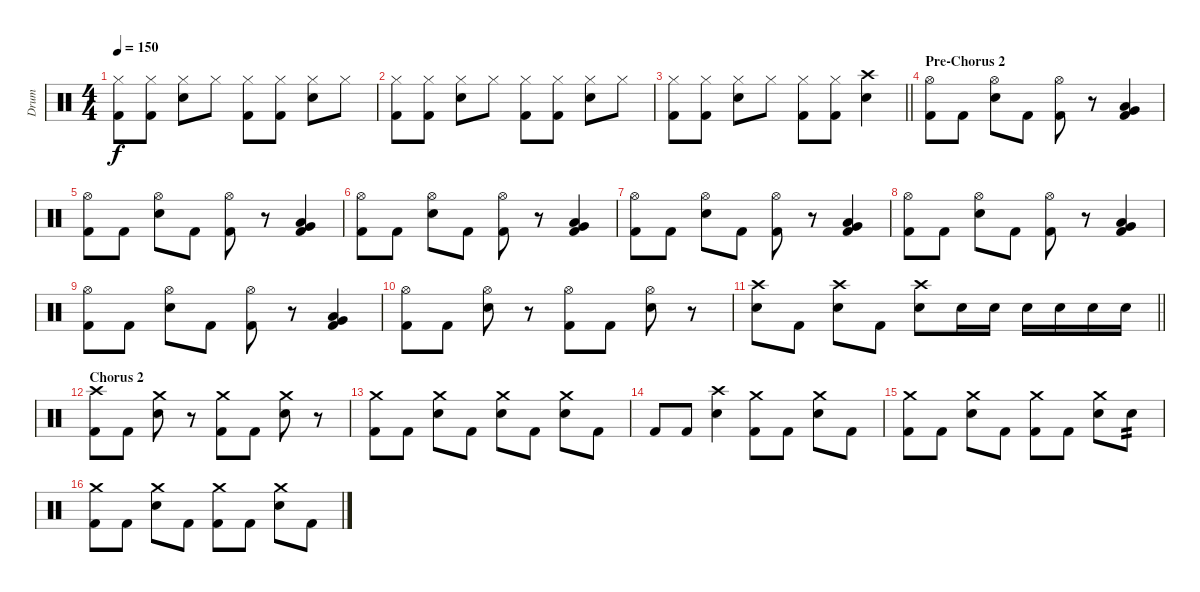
\track ("Drum" "Drum") {instrument percussion}
\staff {score}
\articulation defaults
\ts (4 4)
\tempo 150
\clef neutral
\ks c
("Kick (hit) 2" "Hi-Hat (closed)").8{dy f} ("Kick (hit) 2" "Hi-Hat (closed)").8 ("Electric Snare (hit)" "Hi-Hat (closed)").8 "Hi-Hat (closed)".8 ("Kick (hit) 2" "Hi-Hat (closed)").8 ("Kick (hit) 2" "Hi-Hat (closed)").8 ("Electric Snare (hit)" "Hi-Hat (closed)").8 "Hi-Hat (closed)".8 |
("Kick (hit) 2" "Hi-Hat (closed)").8 ("Kick (hit) 2" "Hi-Hat (closed)").8 ("Electric Snare (hit)" "Hi-Hat (closed)").8 "Hi-Hat (closed)".8 ("Kick (hit) 2" "Hi-Hat (closed)").8 ("Kick (hit) 2" "Hi-Hat (closed)").8 ("Electric Snare (hit)" "Hi-Hat (closed)").8 "Hi-Hat (closed)".8 |
\barLineRight lightlight
("Kick (hit) 2" "Hi-Hat (closed)").8 ("Kick (hit) 2" "Hi-Hat (closed)").8 ("Electric Snare (hit)" "Hi-Hat (closed)").8 "Hi-Hat (closed)".8 ("Kick (hit) 2" "Hi-Hat (closed)").8 ("Kick (hit) 2" "Hi-Hat (closed)").8 ("Electric Snare (hit)" "Crash high (hit)").4 |
\section ("" "Pre-Chorus 2")
("Kick (hit) 2" "Hi-Hat (open)").8 "Kick (hit) 2".8 ("Electric Snare (hit)" "Hi-Hat (open)").8 "Kick (hit) 2".8 ("Kick (hit) 2" "Hi-Hat (open)").8 r.8 ("Very Low Tom (hit)" "Kick (hit) 2" "Low Tom (hit)").4 |
("Kick (hit) 2" "Hi-Hat (open)").8 "Kick (hit) 2".8 ("Electric Snare (hit)" "Hi-Hat (open)").8 "Kick (hit) 2".8 ("Kick (hit) 2" "Hi-Hat (open)").8 r.8 ("Very Low Tom (hit)" "Kick (hit) 2" "Low Tom (hit)").4 |
("Kick (hit) 2" "Hi-Hat (open)").8 "Kick (hit) 2".8 ("Electric Snare (hit)" "Hi-Hat (open)").8 "Kick (hit) 2".8 ("Kick (hit) 2" "Hi-Hat (open)").8 r.8 ("Very Low Tom (hit)" "Kick (hit) 2" "Low Tom (hit)").4 |
("Kick (hit) 2" "Hi-Hat (open)").8 "Kick (hit) 2".8 ("Electric Snare (hit)" "Hi-Hat (open)").8 "Kick (hit) 2".8 ("Kick (hit) 2" "Hi-Hat (open)").8 r.8 ("Very Low Tom (hit)" "Kick (hit) 2" "Low Tom (hit)").4 |
("Kick (hit) 2" "Hi-Hat (open)").8 "Kick (hit) 2".8 ("Electric Snare (hit)" "Hi-Hat (open)").8 "Kick (hit) 2".8 ("Kick (hit) 2" "Hi-Hat (open)").8 r.8 ("Very Low Tom (hit)" "Kick (hit) 2" "Low Tom (hit)").4 |
("Kick (hit) 2" "Hi-Hat (open)").8 "Kick (hit) 2".8 ("Electric Snare (hit)" "Hi-Hat (open)").8 "Kick (hit) 2".8 ("Kick (hit) 2" "Hi-Hat (open)").8 r.8 ("Very Low Tom (hit)" "Kick (hit) 2" "Low Tom (hit)").4 |
("Kick (hit) 2" "Hi-Hat (open)").8 "Kick (hit) 2".8 ("Electric Snare (hit)" "Hi-Hat (open)").8 r.8 ("Kick (hit) 2" "Hi-Hat (open)").8 "Kick (hit) 2".8 ("Electric Snare (hit)" "Hi-Hat (open)").8 r.8 |
\barLineRight lightlight
("Electric Snare (hit)" "Crash high (hit)").8 "Kick (hit) 2".8 ("Electric Snare (hit)" "Crash high (hit)").8 "Kick (hit) 2".8 ("Electric Snare (hit)" "Crash high (hit)").8 "Electric Snare (hit)".16 "Electric Snare (hit)".16 "Electric Snare (hit)".16 "Electric Snare (hit)".16 "Electric Snare (hit)".16 "Electric Snare (hit)".16 |
\section ("" "Chorus 2")
("Kick (hit) 2" "Crash high (hit)").8 "Kick (hit) 2".8 ("Electric Snare (hit)" "Crash medium (hit)").8 r.8 ("Kick (hit) 2" "Crash medium (hit)").8 "Kick (hit) 2".8 ("Electric Snare (hit)" "Crash medium (hit)").8 r.8 |
("Kick (hit) 2" "Crash medium (hit)").8 "Kick (hit) 2".8 ("Electric Snare (hit)" "Crash medium (hit)").8 "Kick (hit) 2".8 ("Electric Snare (hit)" "Crash medium (hit)").8 "Kick (hit) 2".8 ("Electric Snare (hit)" "Crash medium (hit)").8 "Kick (hit) 2".8 |
"Kick (hit) 2".8 "Kick (hit) 2".8 ("Electric Snare (hit)" "Crash high (hit)").4 ("Kick (hit) 2" "Crash medium (hit)").8 "Kick (hit) 2".8 ("Electric Snare (hit)" "Crash medium (hit)").8 "Kick (hit) 2".8 |
("Kick (hit) 2" "Crash medium (hit)").8 "Kick (hit) 2".8 ("Electric Snare (hit)" "Crash medium (hit)").8 "Kick (hit) 2".8 ("Kick (hit) 2" "Crash medium (hit)").8 "Kick (hit) 2".8 ("Electric Snare (hit)" "Crash medium (hit)").8 "Electric Snare (hit)".8{tp 2} |
("Kick (hit) 2" "Crash medium (hit)").8 "Kick (hit) 2".8 ("Electric Snare (hit)" "Crash medium (hit)").8 "Kick (hit) 2".8 ("Kick (hit) 2" "Crash medium (hit)").8 "Kick (hit) 2".8 ("Electric Snare (hit)" "Crash medium (hit)").8 "Kick (hit) 2".8
